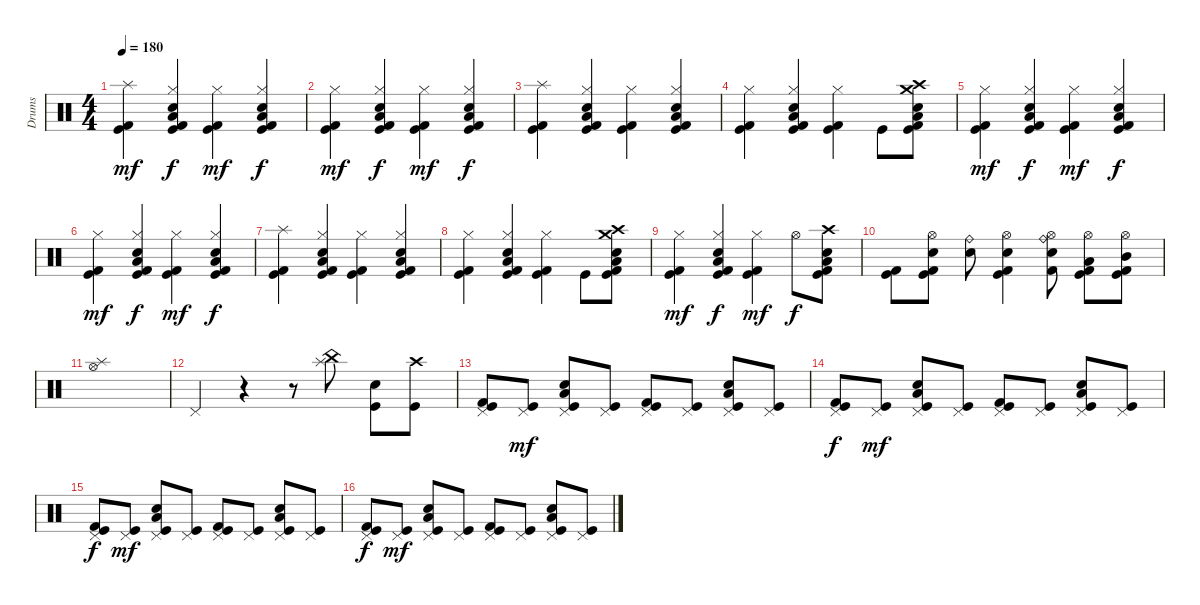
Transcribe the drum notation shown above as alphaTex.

\track ("Drums" "Drums") {instrument percussion}
\staff {score}
\articulation defaults
\ts (4 4)
\tempo 180
\clef neutral
\ks c
("Splash (hit)" "Kick (hit) 2" "Kick (hit)").4{dy mf} ("Hi-Hat (closed)" "Electric Snare (hit)" "Low Tom (hit)" "Kick (hit) 2" "Kick (hit)").4{dy f} ("Hi-Hat (closed)" "Kick (hit) 2" "Kick (hit)").4{dy mf} ("Hi-Hat (closed)" "Electric Snare (hit)" "Low Tom (hit)" "Kick (hit) 2" "Kick (hit)").4{dy f} |
("Hi-Hat (closed)" "Kick (hit) 2" "Kick (hit)").4{dy mf} ("Hi-Hat (closed)" "Electric Snare (hit)" "Low Tom (hit)" "Kick (hit) 2" "Kick (hit)").4{dy f} ("Hi-Hat (closed)" "Kick (hit) 2" "Kick (hit)").4{dy mf} ("Hi-Hat (closed)" "Electric Snare (hit)" "Low Tom (hit)" "Kick (hit) 2" "Kick (hit)").4{dy f} |
("Splash (hit)" "Kick (hit) 2" "Kick (hit)").4 ("Hi-Hat (closed)" "Electric Snare (hit)" "Low Tom (hit)" "Kick (hit) 2" "Kick (hit)").4 ("Hi-Hat (closed)" "Kick (hit) 2" "Kick (hit)").4 ("Hi-Hat (closed)" "Electric Snare (hit)" "Low Tom (hit)" "Kick (hit) 2" "Kick (hit)").4 |
("Hi-Hat (closed)" "Kick (hit) 2" "Kick (hit)").4 ("Hi-Hat (closed)" "Electric Snare (hit)" "Low Tom (hit)" "Kick (hit) 2" "Kick (hit)").4 ("Hi-Hat (closed)" "Kick (hit) 2" "Kick (hit)").4 "Kick (hit)".8 ("Crash high (hit)" "Electric Snare (hit)" "Low Tom (hit)" "Crash medium (hit)" "Kick (hit) 2" "Kick (hit)").8 |
("Hi-Hat (closed)" "Kick (hit) 2" "Kick (hit)").4{dy mf} ("Hi-Hat (closed)" "Electric Snare (hit)" "Low Tom (hit)" "Kick (hit) 2" "Kick (hit)").4{dy f} ("Hi-Hat (closed)" "Kick (hit) 2" "Kick (hit)").4{dy mf} ("Hi-Hat (closed)" "Electric Snare (hit)" "Low Tom (hit)" "Kick (hit) 2" "Kick (hit)").4{dy f} |
("Hi-Hat (closed)" "Kick (hit) 2" "Kick (hit)").4{dy mf} ("Hi-Hat (closed)" "Electric Snare (hit)" "Low Tom (hit)" "Kick (hit) 2" "Kick (hit)").4{dy f} ("Hi-Hat (closed)" "Kick (hit) 2" "Kick (hit)").4{dy mf} ("Hi-Hat (closed)" "Electric Snare (hit)" "Low Tom (hit)" "Kick (hit) 2" "Kick (hit)").4{dy f} |
("Splash (hit)" "Kick (hit) 2" "Kick (hit)").4 ("Hi-Hat (closed)" "Electric Snare (hit)" "Low Tom (hit)" "Kick (hit) 2" "Kick (hit)").4 ("Hi-Hat (closed)" "Kick (hit) 2" "Kick (hit)").4 ("Hi-Hat (closed)" "Electric Snare (hit)" "Low Tom (hit)" "Kick (hit) 2" "Kick (hit)").4 |
("Hi-Hat (closed)" "Kick (hit) 2" "Kick (hit)").4 ("Hi-Hat (closed)" "Electric Snare (hit)" "Low Tom (hit)" "Kick (hit) 2" "Kick (hit)").4 ("Hi-Hat (closed)" "Kick (hit) 2" "Kick (hit)").4 "Kick (hit)".8 ("Crash high (hit)" "Electric Snare (hit)" "Low Tom (hit)" "Crash medium (hit)" "Kick (hit) 2" "Kick (hit)").8 |
("Hi-Hat (closed)" "Kick (hit) 2" "Kick (hit)").4{dy mf} ("Hi-Hat (closed)" "Electric Snare (hit)" "Low Tom (hit)" "Kick (hit) 2" "Kick (hit)").4{dy f} ("Hi-Hat (closed)" "Kick (hit) 2" "Kick (hit)").4{dy mf} "Hi-Hat (open)".8{dy f} ("Crash high (hit)" "Electric Snare (hit)" "Low Tom (hit)" "Kick (hit) 2" "Kick (hit)").8 |
("Kick (hit) 2" "Kick (hit)").8 ("Electric Snare (hit)" "Hi-Hat (open)" "Kick (hit) 2" "Kick (hit)").8 ("Electric Snare (hit)" "Ride (bell)").8 ("Electric Snare (hit)" "Hi-Hat (open)" "Kick (hit) 2" "Kick (hit)").4 ("Electric Snare (hit)" "Hi-Hat (open)" "Kick (hit) 2" "Ride (bell)").8 ("Low Tom (hit)" "Hi-Hat (open)" "Kick (hit) 2" "Kick (hit)").8 ("Mid Tom (hit)" "Hi-Hat (open)" "Kick (hit) 2" "Kick (hit)").8 |
("Hi-Hat (open)" "Splash (hit)").1 |
"Pedal Hi-Hat (hit)".4 r.4 r.8 ("Splash (hit)" "China (hit)").8 ("Electric Snare (hit)" "Kick (hit)").8 ("Crash high (hit)" "Kick (hit)").8 |
("Pedal Hi-Hat (hit)" "Kick (hit) 2" "Kick (hit)").8 ("Pedal Hi-Hat (hit)" "Kick (hit)").8{dy mf} ("Pedal Hi-Hat (hit)" "Electric Snare (hit)" "Low Tom (hit)" "Kick (hit)").8 ("Pedal Hi-Hat (hit)" "Kick (hit)").8 ("Pedal Hi-Hat (hit)" "Kick (hit) 2" "Kick (hit)").8 ("Pedal Hi-Hat (hit)" "Kick (hit)").8 ("Pedal Hi-Hat (hit)" "Electric Snare (hit)" "Low Tom (hit)" "Kick (hit)").8 ("Pedal Hi-Hat (hit)" "Kick (hit)").8 |
("Pedal Hi-Hat (hit)" "Kick (hit) 2" "Kick (hit)").8{dy f} ("Pedal Hi-Hat (hit)" "Kick (hit)").8{dy mf} ("Pedal Hi-Hat (hit)" "Electric Snare (hit)" "Low Tom (hit)" "Kick (hit)").8 ("Pedal Hi-Hat (hit)" "Kick (hit)").8 ("Pedal Hi-Hat (hit)" "Kick (hit) 2" "Kick (hit)").8 ("Pedal Hi-Hat (hit)" "Kick (hit)").8 ("Pedal Hi-Hat (hit)" "Electric Snare (hit)" "Low Tom (hit)" "Kick (hit)").8 ("Pedal Hi-Hat (hit)" "Kick (hit)").8 |
("Pedal Hi-Hat (hit)" "Kick (hit) 2" "Kick (hit)").8{dy f} ("Pedal Hi-Hat (hit)" "Kick (hit)").8{dy mf} ("Pedal Hi-Hat (hit)" "Electric Snare (hit)" "Low Tom (hit)" "Kick (hit)").8 ("Pedal Hi-Hat (hit)" "Kick (hit)").8 ("Pedal Hi-Hat (hit)" "Kick (hit) 2" "Kick (hit)").8 ("Pedal Hi-Hat (hit)" "Kick (hit)").8 ("Pedal Hi-Hat (hit)" "Electric Snare (hit)" "Low Tom (hit)" "Kick (hit)").8 ("Pedal Hi-Hat (hit)" "Kick (hit)").8 |
("Pedal Hi-Hat (hit)" "Kick (hit) 2" "Kick (hit)").8{dy f} ("Pedal Hi-Hat (hit)" "Kick (hit)").8{dy mf} ("Pedal Hi-Hat (hit)" "Electric Snare (hit)" "Low Tom (hit)" "Kick (hit)").8 ("Pedal Hi-Hat (hit)" "Kick (hit)").8 ("Pedal Hi-Hat (hit)" "Kick (hit) 2" "Kick (hit)").8 ("Pedal Hi-Hat (hit)" "Kick (hit)").8 ("Pedal Hi-Hat (hit)" "Electric Snare (hit)" "Low Tom (hit)" "Kick (hit)").8 ("Pedal Hi-Hat (hit)" "Kick (hit)").8
